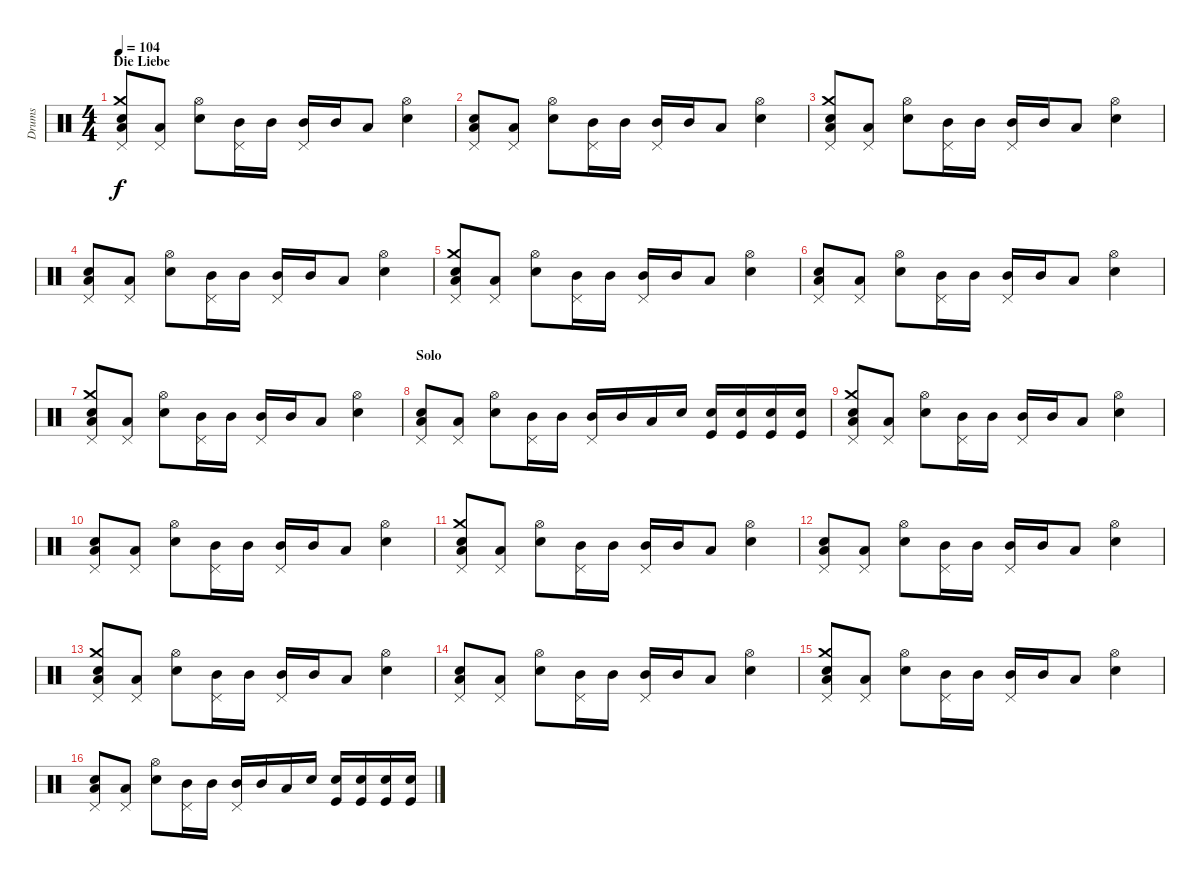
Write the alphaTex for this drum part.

\track ("Drums" "Drums") {instrument percussion}
\staff {score}
\articulation defaults
\ts (4 4)
\section ("" "Die Liebe")
\tempo 104
\clef neutral
\ks c
("Snare (hit) 2" "Crash medium (hit)" "Pedal Hi-Hat (hit)" "Low Floor Tom (hit)").8{dy f} ("Pedal Hi-Hat (hit)" "Low Floor Tom (hit)").8 ("Snare (hit) 2" "Hi-Hat (open)").8 ("Mid Tom (hit)" "Pedal Hi-Hat (hit)").16 "Mid Tom (hit)".16 ("Mid Tom (hit)" "Pedal Hi-Hat (hit)").16 "Mid Tom (hit)".16 "Low Floor Tom (hit)".8 ("Snare (hit) 2" "Hi-Hat (open)").4 |
("Snare (hit) 2" "Pedal Hi-Hat (hit)" "Low Floor Tom (hit)").8 ("Pedal Hi-Hat (hit)" "Low Floor Tom (hit)").8 ("Snare (hit) 2" "Hi-Hat (open)").8 ("Mid Tom (hit)" "Pedal Hi-Hat (hit)").16 "Mid Tom (hit)".16 ("Mid Tom (hit)" "Pedal Hi-Hat (hit)").16 "Mid Tom (hit)".16 "Low Floor Tom (hit)".8 ("Snare (hit) 2" "Hi-Hat (open)").4 |
("Snare (hit) 2" "Crash medium (hit)" "Pedal Hi-Hat (hit)" "Low Floor Tom (hit)").8 ("Pedal Hi-Hat (hit)" "Low Floor Tom (hit)").8 ("Snare (hit) 2" "Hi-Hat (open)").8 ("Mid Tom (hit)" "Pedal Hi-Hat (hit)").16 "Mid Tom (hit)".16 ("Mid Tom (hit)" "Pedal Hi-Hat (hit)").16 "Mid Tom (hit)".16 "Low Floor Tom (hit)".8 ("Snare (hit) 2" "Hi-Hat (open)").4 |
("Snare (hit) 2" "Pedal Hi-Hat (hit)" "Low Floor Tom (hit)").8 ("Pedal Hi-Hat (hit)" "Low Floor Tom (hit)").8 ("Snare (hit) 2" "Hi-Hat (open)").8 ("Mid Tom (hit)" "Pedal Hi-Hat (hit)").16 "Mid Tom (hit)".16 ("Mid Tom (hit)" "Pedal Hi-Hat (hit)").16 "Mid Tom (hit)".16 "Low Floor Tom (hit)".8 ("Snare (hit) 2" "Hi-Hat (open)").4 |
("Snare (hit) 2" "Crash medium (hit)" "Pedal Hi-Hat (hit)" "Low Floor Tom (hit)").8 ("Pedal Hi-Hat (hit)" "Low Floor Tom (hit)").8 ("Snare (hit) 2" "Hi-Hat (open)").8 ("Mid Tom (hit)" "Pedal Hi-Hat (hit)").16 "Mid Tom (hit)".16 ("Mid Tom (hit)" "Pedal Hi-Hat (hit)").16 "Mid Tom (hit)".16 "Low Floor Tom (hit)".8 ("Snare (hit) 2" "Hi-Hat (open)").4 |
("Snare (hit) 2" "Pedal Hi-Hat (hit)" "Low Floor Tom (hit)").8 ("Pedal Hi-Hat (hit)" "Low Floor Tom (hit)").8 ("Snare (hit) 2" "Hi-Hat (open)").8 ("Mid Tom (hit)" "Pedal Hi-Hat (hit)").16 "Mid Tom (hit)".16 ("Mid Tom (hit)" "Pedal Hi-Hat (hit)").16 "Mid Tom (hit)".16 "Low Floor Tom (hit)".8 ("Snare (hit) 2" "Hi-Hat (open)").4 |
("Snare (hit) 2" "Crash medium (hit)" "Pedal Hi-Hat (hit)" "Low Floor Tom (hit)").8 ("Pedal Hi-Hat (hit)" "Low Floor Tom (hit)").8 ("Snare (hit) 2" "Hi-Hat (open)").8 ("Mid Tom (hit)" "Pedal Hi-Hat (hit)").16 "Mid Tom (hit)".16 ("Mid Tom (hit)" "Pedal Hi-Hat (hit)").16 "Mid Tom (hit)".16 "Low Floor Tom (hit)".8 ("Snare (hit) 2" "Hi-Hat (open)").4 |
\section ("" "Solo")
("Snare (hit) 2" "Pedal Hi-Hat (hit)" "Low Floor Tom (hit)").8 ("Pedal Hi-Hat (hit)" "Low Floor Tom (hit)").8 ("Snare (hit) 2" "Hi-Hat (open)").8 ("Mid Tom (hit)" "Pedal Hi-Hat (hit)").16 "Mid Tom (hit)".16 ("Mid Tom (hit)" "Pedal Hi-Hat (hit)").16 "Mid Tom (hit)".16 "Low Floor Tom (hit)".16 "Snare (hit) 2".16 ("Snare (hit) 2" "Kick (hit)").16 ("Snare (hit) 2" "Kick (hit)").16 ("Snare (hit) 2" "Kick (hit)").16 ("Snare (hit) 2" "Kick (hit)").16 |
("Snare (hit) 2" "Crash medium (hit)" "Pedal Hi-Hat (hit)" "Low Floor Tom (hit)").8 ("Pedal Hi-Hat (hit)" "Low Floor Tom (hit)").8 ("Snare (hit) 2" "Hi-Hat (open)").8 ("Mid Tom (hit)" "Pedal Hi-Hat (hit)").16 "Mid Tom (hit)".16 ("Mid Tom (hit)" "Pedal Hi-Hat (hit)").16 "Mid Tom (hit)".16 "Low Floor Tom (hit)".8 ("Snare (hit) 2" "Hi-Hat (open)").4 |
("Snare (hit) 2" "Pedal Hi-Hat (hit)" "Low Floor Tom (hit)").8 ("Pedal Hi-Hat (hit)" "Low Floor Tom (hit)").8 ("Snare (hit) 2" "Hi-Hat (open)").8 ("Mid Tom (hit)" "Pedal Hi-Hat (hit)").16 "Mid Tom (hit)".16 ("Mid Tom (hit)" "Pedal Hi-Hat (hit)").16 "Mid Tom (hit)".16 "Low Floor Tom (hit)".8 ("Snare (hit) 2" "Hi-Hat (open)").4 |
("Snare (hit) 2" "Crash medium (hit)" "Pedal Hi-Hat (hit)" "Low Floor Tom (hit)").8 ("Pedal Hi-Hat (hit)" "Low Floor Tom (hit)").8 ("Snare (hit) 2" "Hi-Hat (open)").8 ("Mid Tom (hit)" "Pedal Hi-Hat (hit)").16 "Mid Tom (hit)".16 ("Mid Tom (hit)" "Pedal Hi-Hat (hit)").16 "Mid Tom (hit)".16 "Low Floor Tom (hit)".8 ("Snare (hit) 2" "Hi-Hat (open)").4 |
("Snare (hit) 2" "Pedal Hi-Hat (hit)" "Low Floor Tom (hit)").8 ("Pedal Hi-Hat (hit)" "Low Floor Tom (hit)").8 ("Snare (hit) 2" "Hi-Hat (open)").8 ("Mid Tom (hit)" "Pedal Hi-Hat (hit)").16 "Mid Tom (hit)".16 ("Mid Tom (hit)" "Pedal Hi-Hat (hit)").16 "Mid Tom (hit)".16 "Low Floor Tom (hit)".8 ("Snare (hit) 2" "Hi-Hat (open)").4 |
("Snare (hit) 2" "Crash medium (hit)" "Pedal Hi-Hat (hit)" "Low Floor Tom (hit)").8 ("Pedal Hi-Hat (hit)" "Low Floor Tom (hit)").8 ("Snare (hit) 2" "Hi-Hat (open)").8 ("Mid Tom (hit)" "Pedal Hi-Hat (hit)").16 "Mid Tom (hit)".16 ("Mid Tom (hit)" "Pedal Hi-Hat (hit)").16 "Mid Tom (hit)".16 "Low Floor Tom (hit)".8 ("Snare (hit) 2" "Hi-Hat (open)").4 |
("Snare (hit) 2" "Pedal Hi-Hat (hit)" "Low Floor Tom (hit)").8 ("Pedal Hi-Hat (hit)" "Low Floor Tom (hit)").8 ("Snare (hit) 2" "Hi-Hat (open)").8 ("Mid Tom (hit)" "Pedal Hi-Hat (hit)").16 "Mid Tom (hit)".16 ("Mid Tom (hit)" "Pedal Hi-Hat (hit)").16 "Mid Tom (hit)".16 "Low Floor Tom (hit)".8 ("Snare (hit) 2" "Hi-Hat (open)").4 |
("Snare (hit) 2" "Crash medium (hit)" "Pedal Hi-Hat (hit)" "Low Floor Tom (hit)").8 ("Pedal Hi-Hat (hit)" "Low Floor Tom (hit)").8 ("Snare (hit) 2" "Hi-Hat (open)").8 ("Mid Tom (hit)" "Pedal Hi-Hat (hit)").16 "Mid Tom (hit)".16 ("Mid Tom (hit)" "Pedal Hi-Hat (hit)").16 "Mid Tom (hit)".16 "Low Floor Tom (hit)".8 ("Snare (hit) 2" "Hi-Hat (open)").4 |
("Snare (hit) 2" "Pedal Hi-Hat (hit)" "Low Floor Tom (hit)").8 ("Pedal Hi-Hat (hit)" "Low Floor Tom (hit)").8 ("Snare (hit) 2" "Hi-Hat (open)").8 ("Mid Tom (hit)" "Pedal Hi-Hat (hit)").16 "Mid Tom (hit)".16 ("Mid Tom (hit)" "Pedal Hi-Hat (hit)").16 "Mid Tom (hit)".16 "Low Floor Tom (hit)".16 "Snare (hit) 2".16 ("Snare (hit) 2" "Kick (hit)").16 ("Snare (hit) 2" "Kick (hit)").16 ("Snare (hit) 2" "Kick (hit)").16 ("Snare (hit) 2" "Kick (hit)").16
